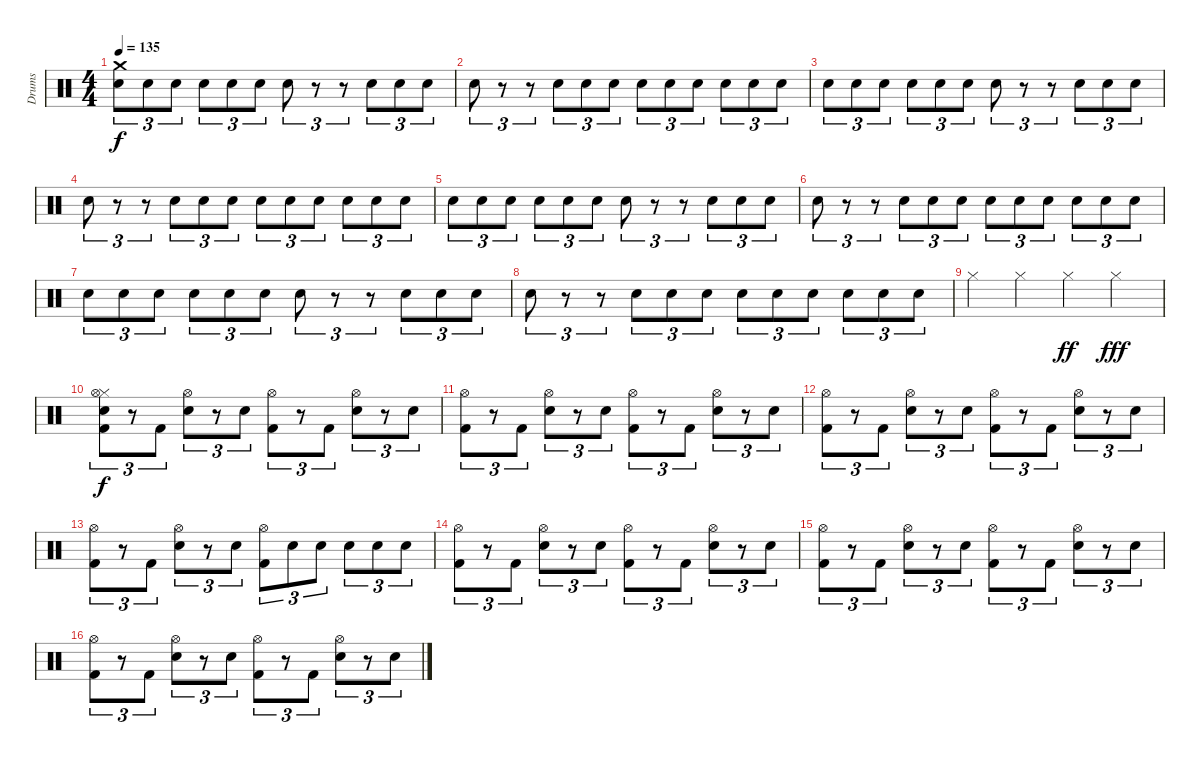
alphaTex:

\track ("Drums" "Drums") {instrument percussion}
\staff {score}
\articulation defaults
\ts (4 4)
\tempo 135
\clef neutral
\ks c
("Snare (hit) 2" "Crash medium (hit)").8{tu (3 2) dy f} "Snare (hit) 2".8{tu (3 2)} "Snare (hit) 2".8{tu (3 2)} "Snare (hit) 2".8{tu (3 2)} "Snare (hit) 2".8{tu (3 2)} "Snare (hit) 2".8{tu (3 2)} "Snare (hit) 2".8{tu (3 2)} r.8{tu (3 2)} r.8{tu (3 2)} "Snare (hit) 2".8{tu (3 2)} "Snare (hit) 2".8{tu (3 2)} "Snare (hit) 2".8{tu (3 2)} |
"Snare (hit) 2".8{tu (3 2)} r.8{tu (3 2)} r.8{tu (3 2)} "Snare (hit) 2".8{tu (3 2)} "Snare (hit) 2".8{tu (3 2)} "Snare (hit) 2".8{tu (3 2)} "Snare (hit) 2".8{tu (3 2)} "Snare (hit) 2".8{tu (3 2)} "Snare (hit) 2".8{tu (3 2)} "Snare (hit) 2".8{tu (3 2)} "Snare (hit) 2".8{tu (3 2)} "Snare (hit) 2".8{tu (3 2)} |
"Snare (hit) 2".8{tu (3 2)} "Snare (hit) 2".8{tu (3 2)} "Snare (hit) 2".8{tu (3 2)} "Snare (hit) 2".8{tu (3 2)} "Snare (hit) 2".8{tu (3 2)} "Snare (hit) 2".8{tu (3 2)} "Snare (hit) 2".8{tu (3 2)} r.8{tu (3 2)} r.8{tu (3 2)} "Snare (hit) 2".8{tu (3 2)} "Snare (hit) 2".8{tu (3 2)} "Snare (hit) 2".8{tu (3 2)} |
"Snare (hit) 2".8{tu (3 2)} r.8{tu (3 2)} r.8{tu (3 2)} "Snare (hit) 2".8{tu (3 2)} "Snare (hit) 2".8{tu (3 2)} "Snare (hit) 2".8{tu (3 2)} "Snare (hit) 2".8{tu (3 2)} "Snare (hit) 2".8{tu (3 2)} "Snare (hit) 2".8{tu (3 2)} "Snare (hit) 2".8{tu (3 2)} "Snare (hit) 2".8{tu (3 2)} "Snare (hit) 2".8{tu (3 2)} |
"Snare (hit) 2".8{tu (3 2)} "Snare (hit) 2".8{tu (3 2)} "Snare (hit) 2".8{tu (3 2)} "Snare (hit) 2".8{tu (3 2)} "Snare (hit) 2".8{tu (3 2)} "Snare (hit) 2".8{tu (3 2)} "Snare (hit) 2".8{tu (3 2)} r.8{tu (3 2)} r.8{tu (3 2)} "Snare (hit) 2".8{tu (3 2)} "Snare (hit) 2".8{tu (3 2)} "Snare (hit) 2".8{tu (3 2)} |
"Snare (hit) 2".8{tu (3 2)} r.8{tu (3 2)} r.8{tu (3 2)} "Snare (hit) 2".8{tu (3 2)} "Snare (hit) 2".8{tu (3 2)} "Snare (hit) 2".8{tu (3 2)} "Snare (hit) 2".8{tu (3 2)} "Snare (hit) 2".8{tu (3 2)} "Snare (hit) 2".8{tu (3 2)} "Snare (hit) 2".8{tu (3 2)} "Snare (hit) 2".8{tu (3 2)} "Snare (hit) 2".8{tu (3 2)} |
"Snare (hit) 2".8{tu (3 2)} "Snare (hit) 2".8{tu (3 2)} "Snare (hit) 2".8{tu (3 2)} "Snare (hit) 2".8{tu (3 2)} "Snare (hit) 2".8{tu (3 2)} "Snare (hit) 2".8{tu (3 2)} "Snare (hit) 2".8{tu (3 2)} r.8{tu (3 2)} r.8{tu (3 2)} "Snare (hit) 2".8{tu (3 2)} "Snare (hit) 2".8{tu (3 2)} "Snare (hit) 2".8{tu (3 2)} |
"Snare (hit) 2".8{tu (3 2)} r.8{tu (3 2)} r.8{tu (3 2)} "Snare (hit) 2".8{tu (3 2)} "Snare (hit) 2".8{tu (3 2)} "Snare (hit) 2".8{tu (3 2)} "Snare (hit) 2".8{tu (3 2)} "Snare (hit) 2".8{tu (3 2)} "Snare (hit) 2".8{tu (3 2)} "Snare (hit) 2".8{tu (3 2)} "Snare (hit) 2".8{tu (3 2)} "Snare (hit) 2".8{tu (3 2)} |
"Hi-Hat (closed)".4 "Hi-Hat (closed)".4 "Hi-Hat (closed)".4{dy ff} "Hi-Hat (closed)".4{dy fff} |
("Kick (hit) 2" "Snare (hit)" "Hi-Hat (closed)" "Hi-Hat (open)").8{tu (3 2) dy f} r.8{tu (3 2)} "Kick (hit) 2".8{tu (3 2)} ("Snare (hit) 2" "Hi-Hat (open)").8{tu (3 2)} r.8{tu (3 2)} "Snare (hit) 2".8{tu (3 2)} ("Kick (hit) 2" "Hi-Hat (open)").8{tu (3 2)} r.8{tu (3 2)} "Kick (hit) 2".8{tu (3 2)} ("Snare (hit) 2" "Hi-Hat (open)").8{tu (3 2)} r.8{tu (3 2)} "Snare (hit) 2".8{tu (3 2)} |
("Kick (hit) 2" "Hi-Hat (open)").8{tu (3 2)} r.8{tu (3 2)} "Kick (hit) 2".8{tu (3 2)} ("Snare (hit) 2" "Hi-Hat (open)").8{tu (3 2)} r.8{tu (3 2)} "Snare (hit) 2".8{tu (3 2)} ("Kick (hit) 2" "Hi-Hat (open)").8{tu (3 2)} r.8{tu (3 2)} "Kick (hit) 2".8{tu (3 2)} ("Snare (hit) 2" "Hi-Hat (open)").8{tu (3 2)} r.8{tu (3 2)} "Snare (hit) 2".8{tu (3 2)} |
("Kick (hit) 2" "Hi-Hat (open)").8{tu (3 2)} r.8{tu (3 2)} "Kick (hit) 2".8{tu (3 2)} ("Snare (hit) 2" "Hi-Hat (open)").8{tu (3 2)} r.8{tu (3 2)} "Snare (hit) 2".8{tu (3 2)} ("Kick (hit) 2" "Hi-Hat (open)").8{tu (3 2)} r.8{tu (3 2)} "Kick (hit) 2".8{tu (3 2)} ("Snare (hit) 2" "Hi-Hat (open)").8{tu (3 2)} r.8{tu (3 2)} "Snare (hit) 2".8{tu (3 2)} |
("Kick (hit) 2" "Hi-Hat (open)").8{tu (3 2)} r.8{tu (3 2)} "Kick (hit) 2".8{tu (3 2)} ("Snare (hit) 2" "Hi-Hat (open)").8{tu (3 2)} r.8{tu (3 2)} "Snare (hit) 2".8{tu (3 2)} ("Kick (hit) 2" "Hi-Hat (open)").8{tu (3 2)} "Snare (hit) 2".8{tu (3 2)} "Snare (hit) 2".8{tu (3 2)} "Snare (hit) 2".8{tu (3 2)} "Snare (hit) 2".8{tu (3 2)} "Snare (hit) 2".8{tu (3 2)} |
("Kick (hit) 2" "Hi-Hat (open)").8{tu (3 2)} r.8{tu (3 2)} "Kick (hit) 2".8{tu (3 2)} ("Snare (hit) 2" "Hi-Hat (open)").8{tu (3 2)} r.8{tu (3 2)} "Snare (hit) 2".8{tu (3 2)} ("Kick (hit) 2" "Hi-Hat (open)").8{tu (3 2)} r.8{tu (3 2)} "Kick (hit) 2".8{tu (3 2)} ("Snare (hit) 2" "Hi-Hat (open)").8{tu (3 2)} r.8{tu (3 2)} "Snare (hit) 2".8{tu (3 2)} |
("Kick (hit) 2" "Hi-Hat (open)").8{tu (3 2)} r.8{tu (3 2)} "Kick (hit) 2".8{tu (3 2)} ("Snare (hit) 2" "Hi-Hat (open)").8{tu (3 2)} r.8{tu (3 2)} "Snare (hit) 2".8{tu (3 2)} ("Kick (hit) 2" "Hi-Hat (open)").8{tu (3 2)} r.8{tu (3 2)} "Kick (hit) 2".8{tu (3 2)} ("Snare (hit) 2" "Hi-Hat (open)").8{tu (3 2)} r.8{tu (3 2)} "Snare (hit) 2".8{tu (3 2)} |
("Kick (hit) 2" "Hi-Hat (open)").8{tu (3 2)} r.8{tu (3 2)} "Kick (hit) 2".8{tu (3 2)} ("Snare (hit) 2" "Hi-Hat (open)").8{tu (3 2)} r.8{tu (3 2)} "Snare (hit) 2".8{tu (3 2)} ("Kick (hit) 2" "Hi-Hat (open)").8{tu (3 2)} r.8{tu (3 2)} "Kick (hit) 2".8{tu (3 2)} ("Snare (hit) 2" "Hi-Hat (open)").8{tu (3 2)} r.8{tu (3 2)} "Snare (hit) 2".8{tu (3 2)}
